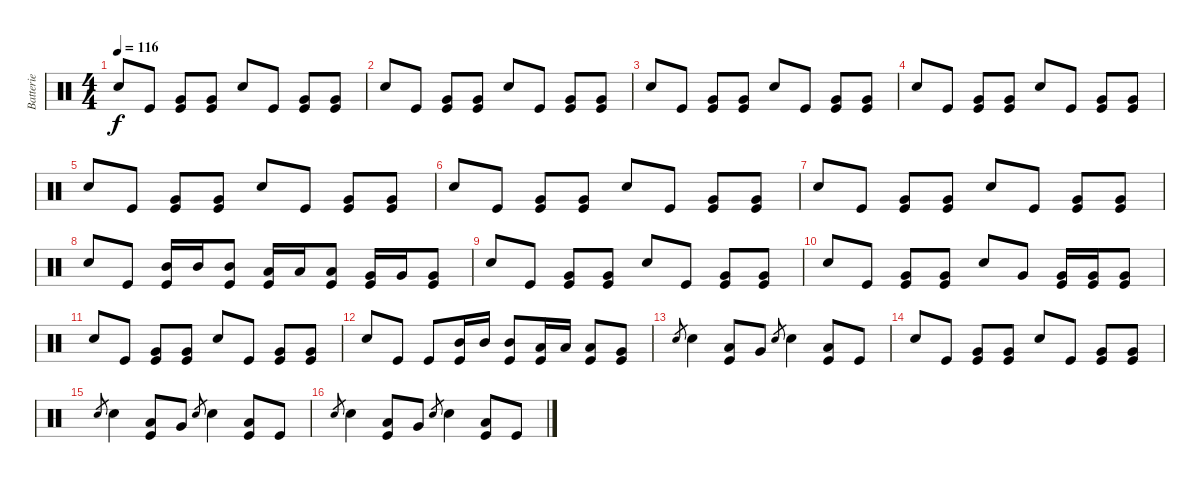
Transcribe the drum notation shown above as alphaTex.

\track ("Batterie" "Batterie") {instrument percussion}
\staff {score}
\articulation defaults
\ts (4 4)
\tempo 116
\clef neutral
\ks c "Snare (hit) 2".8{dy f} "Kick (hit)".8
("Very Low Tom (hit)" "Kick (hit)").8 ("Very Low Tom (hit)" "Kick (hit)").8 "Snare (hit) 2".8 "Kick (hit)".8 ("Very Low Tom (hit)" "Kick (hit)").8 ("Very Low Tom (hit)" "Kick (hit)").8 |
"Snare (hit) 2".8 "Kick (hit)".8 ("Very Low Tom (hit)" "Kick (hit)").8 ("Very Low Tom (hit)" "Kick (hit)").8 "Snare (hit) 2".8 "Kick (hit)".8 ("Very Low Tom (hit)" "Kick (hit)").8 ("Very Low Tom (hit)" "Kick (hit)").8 |
"Snare (hit) 2".8 "Kick (hit)".8 ("Very Low Tom (hit)" "Kick (hit)").8 ("Very Low Tom (hit)" "Kick (hit)").8 "Snare (hit) 2".8 "Kick (hit)".8 ("Very Low Tom (hit)" "Kick (hit)").8 ("Very Low Tom (hit)" "Kick (hit)").8 |
"Snare (hit) 2".8 "Kick (hit)".8 ("Very Low Tom (hit)" "Kick (hit)").8 ("Very Low Tom (hit)" "Kick (hit)").8 "Snare (hit) 2".8 "Kick (hit)".8 ("Very Low Tom (hit)" "Kick (hit)").8 ("Very Low Tom (hit)" "Kick (hit)").8 |
"Snare (hit) 2".8 "Kick (hit)".8 ("Very Low Tom (hit)" "Kick (hit)").8 ("Very Low Tom (hit)" "Kick (hit)").8 "Snare (hit) 2".8 "Kick (hit)".8 ("Very Low Tom (hit)" "Kick (hit)").8 ("Very Low Tom (hit)" "Kick (hit)").8 |
"Snare (hit) 2".8 "Kick (hit)".8 ("Very Low Tom (hit)" "Kick (hit)").8 ("Very Low Tom (hit)" "Kick (hit)").8 "Snare (hit) 2".8 "Kick (hit)".8 ("Very Low Tom (hit)" "Kick (hit)").8 ("Very Low Tom (hit)" "Kick (hit)").8 |
"Snare (hit) 2".8 "Kick (hit)".8 ("Very Low Tom (hit)" "Kick (hit)").8 ("Very Low Tom (hit)" "Kick (hit)").8 "Snare (hit) 2".8 "Kick (hit)".8 ("Very Low Tom (hit)" "Kick (hit)").8 ("Very Low Tom (hit)" "Kick (hit)").8 |
"Snare (hit) 2".8 "Kick (hit)".8 ("Mid Tom (hit)" "Kick (hit)").16 "Mid Tom (hit)".16 ("Mid Tom (hit)" "Kick (hit)").8 ("Low Tom (hit)" "Kick (hit)").16 "Low Tom (hit)".16 ("Low Tom (hit)" "Kick (hit)").8 ("Very Low Tom (hit)" "Kick (hit)").16 "Very Low Tom (hit)".16 ("Very Low Tom (hit)" "Kick (hit)").8 |
"Snare (hit) 2".8 "Kick (hit)".8 ("Very Low Tom (hit)" "Kick (hit)").8 ("Very Low Tom (hit)" "Kick (hit)").8 "Snare (hit) 2".8 "Kick (hit)".8 ("Very Low Tom (hit)" "Kick (hit)").8 ("Very Low Tom (hit)" "Kick (hit)").8 |
"Snare (hit) 2".8 "Kick (hit)".8 ("Very Low Tom (hit)" "Kick (hit)").8 ("Very Low Tom (hit)" "Kick (hit)").8 "Snare (hit) 2".8 "Very Low Tom (hit)".8 ("Very Low Tom (hit)" "Kick (hit)").16 ("Very Low Tom (hit)" "Kick (hit)").16 ("Very Low Tom (hit)" "Kick (hit)").8 |
"Snare (hit) 2".8 "Kick (hit)".8 ("Very Low Tom (hit)" "Kick (hit)").8 ("Very Low Tom (hit)" "Kick (hit)").8 "Snare (hit) 2".8 "Kick (hit)".8 ("Very Low Tom (hit)" "Kick (hit)").8 ("Very Low Tom (hit)" "Kick (hit)").8 |
"Snare (hit) 2".8 "Kick (hit)".8 "Kick (hit)".8 ("Mid Tom (hit)" "Kick (hit)").16 "Mid Tom (hit)".16 ("Mid Tom (hit)" "Kick (hit)").8 ("Low Tom (hit)" "Kick (hit)").16 "Low Tom (hit)".16 ("Low Tom (hit)" "Kick (hit)").8 ("Very Low Tom (hit)" "Kick (hit)").8 |
"Snare (hit) 2".8{gr} "Snare (hit) 2".4 ("Low Tom (hit)" "Kick (hit)").8 "Very Low Tom (hit)".8 "Snare (hit) 2".8{gr} "Snare (hit) 2".4 ("Low Tom (hit)" "Kick (hit)").8 "Kick (hit)".8 |
"Snare (hit) 2".8 "Kick (hit)".8 ("Very Low Tom (hit)" "Kick (hit)").8 ("Very Low Tom (hit)" "Kick (hit)").8 "Snare (hit) 2".8 "Kick (hit)".8 ("Very Low Tom (hit)" "Kick (hit)").8 ("Very Low Tom (hit)" "Kick (hit)").8 |
"Snare (hit) 2".8{gr} "Snare (hit) 2".4 ("Low Tom (hit)" "Kick (hit)").8 "Very Low Tom (hit)".8 "Snare (hit) 2".8{gr} "Snare (hit) 2".4 ("Low Tom (hit)" "Kick (hit)").8 "Kick (hit)".8 |
"Snare (hit) 2".8{gr} "Snare (hit) 2".4 ("Low Tom (hit)" "Kick (hit)").8 "Very Low Tom (hit)".8 "Snare (hit) 2".8{gr} "Snare (hit) 2".4 ("Low Tom (hit)" "Kick (hit)").8 "Kick (hit)".8
